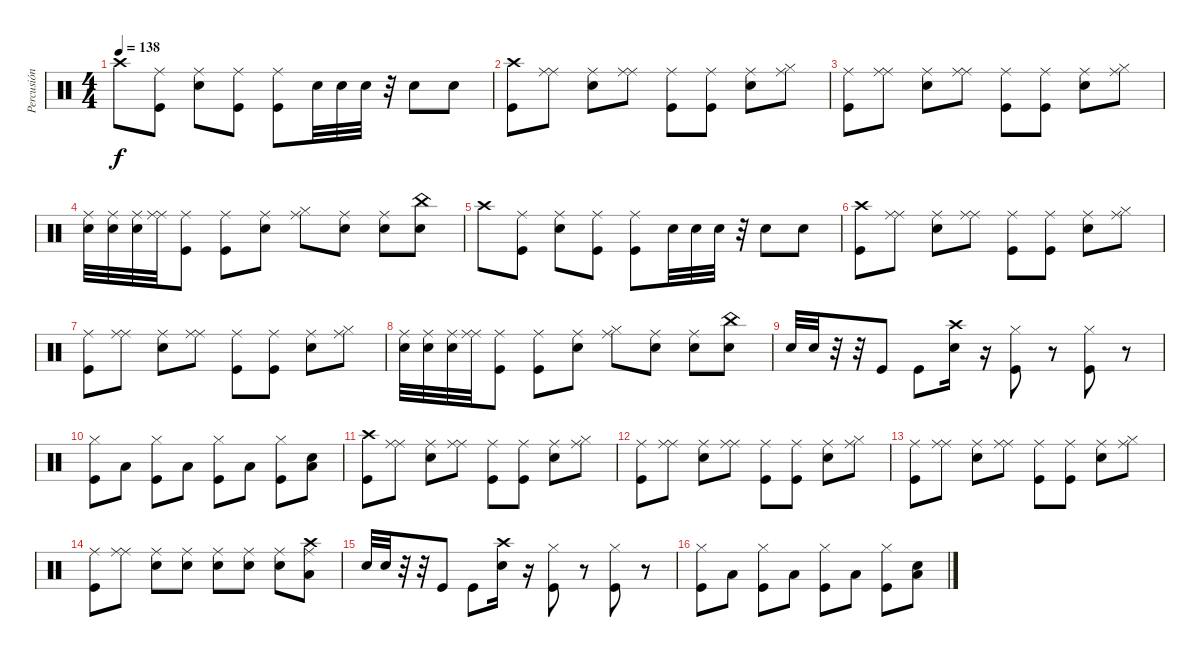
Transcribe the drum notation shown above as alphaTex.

\track ("Percusión" "Percusión") {instrument percussion}
\staff {score}
\articulation defaults
\ts (4 4)
\tempo 138
\clef neutral
\ks c "Crash high (hit)".8{dy f}
("Kick (hit)" "Ride (middle)").8 ("Snare (hit) 2" "Ride (middle)").8 ("Kick (hit)" "Ride (middle)").8 ("Kick (hit)" "Ride (middle)").8 "Snare (hit) 2".32 "Snare (hit) 2".32 "Snare (hit) 2".32 r.32 "Snare (hit) 2".8 "Snare (hit) 2".8 |
("Crash high (hit)" "Kick (hit)").8 ("Ride (middle)" "Ride (middle)").8 ("Ride (middle)" "Snare (hit) 2").8 ("Ride (middle)" "Ride (middle)").8 ("Ride (middle)" "Kick (hit)").8 ("Ride (middle)" "Kick (hit)").8 ("Ride (middle)" "Snare (hit) 2").8 ("Ride (middle)" "Hi-Hat (closed)").8 |
("Ride (middle)" "Kick (hit)").8 ("Ride (middle)" "Ride (middle)").8 ("Ride (middle)" "Snare (hit) 2").8 ("Ride (middle)" "Ride (middle)").8 ("Ride (middle)" "Kick (hit)").8 ("Ride (middle)" "Kick (hit)").8 ("Ride (middle)" "Snare (hit) 2").8 ("Ride (middle)" "Hi-Hat (closed)").8 |
("Ride (middle)" "Snare (hit) 2").32 ("Ride (middle)" "Snare (hit) 2").32 ("Ride (middle)" "Snare (hit) 2").32 ("Ride (middle)" "Ride (middle)").32 ("Ride (middle)" "Kick (hit)").8 ("Ride (middle)" "Kick (hit)").8 ("Ride (middle)" "Snare (hit) 2").8 ("Ride (middle)" "Hi-Hat (closed)").8 ("Ride (middle)" "Snare (hit) 2").8 ("Ride (middle)" "Snare (hit) 2").8 ("China (hit)" "Snare (hit) 2").8 |
"Crash high (hit)".8 ("Kick (hit)" "Ride (middle)").8 ("Snare (hit) 2" "Ride (middle)").8 ("Kick (hit)" "Ride (middle)").8 ("Kick (hit)" "Ride (middle)").8 "Snare (hit) 2".32 "Snare (hit) 2".32 "Snare (hit) 2".32 r.32 "Snare (hit) 2".8 "Snare (hit) 2".8 |
("Crash high (hit)" "Kick (hit)").8 ("Ride (middle)" "Ride (middle)").8 ("Ride (middle)" "Snare (hit) 2").8 ("Ride (middle)" "Ride (middle)").8 ("Ride (middle)" "Kick (hit)").8 ("Ride (middle)" "Kick (hit)").8 ("Ride (middle)" "Snare (hit) 2").8 ("Ride (middle)" "Hi-Hat (closed)").8 |
("Ride (middle)" "Kick (hit)").8 ("Ride (middle)" "Ride (middle)").8 ("Ride (middle)" "Snare (hit) 2").8 ("Ride (middle)" "Ride (middle)").8 ("Ride (middle)" "Kick (hit)").8 ("Ride (middle)" "Kick (hit)").8 ("Ride (middle)" "Snare (hit) 2").8 ("Ride (middle)" "Hi-Hat (closed)").8 |
("Ride (middle)" "Snare (hit) 2").32 ("Ride (middle)" "Snare (hit) 2").32 ("Ride (middle)" "Snare (hit) 2").32 ("Ride (middle)" "Ride (middle)").32 ("Ride (middle)" "Kick (hit)").8 ("Ride (middle)" "Kick (hit)").8 ("Ride (middle)" "Snare (hit) 2").8 ("Ride (middle)" "Hi-Hat (closed)").8 ("Ride (middle)" "Snare (hit) 2").8 ("Ride (middle)" "Snare (hit) 2").8 ("China (hit)" "Snare (hit) 2").8 |
"Snare (hit) 2".32 "Snare (hit) 2".32 r.32 r.32 "Kick (hit)".8 "Kick (hit)".8 ("Crash high (hit)" "Snare (hit) 2").16 r.16 ("Hi-Hat (closed)" "Kick (hit)").8 r.8 ("Hi-Hat (closed)" "Kick (hit)").8 r.8 |
("Hi-Hat (closed)" "Kick (hit)").8 "Low Tom (hit)".8 ("Hi-Hat (closed)" "Kick (hit)").8 "Low Floor Tom (hit)".8 ("Hi-Hat (closed)" "Kick (hit)").8 "Low Floor Tom (hit)".8 ("Hi-Hat (closed)" "Kick (hit)").8 ("Low Floor Tom (hit)" "Snare (hit) 2").8 |
("Crash high (hit)" "Kick (hit)").8 ("Ride (middle)" "Ride (middle)").8 ("Ride (middle)" "Snare (hit) 2").8 ("Ride (middle)" "Ride (middle)").8 ("Ride (middle)" "Kick (hit)").8 ("Ride (middle)" "Kick (hit)").8 ("Ride (middle)" "Snare (hit) 2").8 ("Ride (middle)" "Hi-Hat (closed)").8 |
("Ride (middle)" "Kick (hit)").8 ("Ride (middle)" "Ride (middle)").8 ("Ride (middle)" "Snare (hit) 2").8 ("Ride (middle)" "Ride (middle)").8 ("Ride (middle)" "Kick (hit)").8 ("Ride (middle)" "Kick (hit)").8 ("Ride (middle)" "Snare (hit) 2").8 ("Ride (middle)" "Hi-Hat (closed)").8 |
("Ride (middle)" "Kick (hit)").8 ("Ride (middle)" "Ride (middle)").8 ("Ride (middle)" "Snare (hit) 2").8 ("Ride (middle)" "Ride (middle)").8 ("Ride (middle)" "Kick (hit)").8 ("Ride (middle)" "Kick (hit)").8 ("Ride (middle)" "Snare (hit) 2").8 ("Ride (middle)" "Hi-Hat (closed)").8 |
("Ride (middle)" "Kick (hit)").8 ("Ride (middle)" "Ride (middle)").8 ("Ride (middle)" "Snare (hit) 2").8 ("Ride (middle)" "Snare (hit) 2").8 ("Ride (middle)" "Snare (hit) 2").8 ("Ride (middle)" "Snare (hit) 2").8 ("Ride (middle)" "Snare (hit) 2").8 ("Ride (middle)" "Low Tom (hit)" "Crash high (hit)").8 |
"Snare (hit) 2".32 "Snare (hit) 2".32 r.32 r.32 "Kick (hit)".8 "Kick (hit)".8 ("Crash high (hit)" "Snare (hit) 2").16 r.16 ("Hi-Hat (closed)" "Kick (hit)").8 r.8 ("Hi-Hat (closed)" "Kick (hit)").8 r.8 |
("Hi-Hat (closed)" "Kick (hit)").8 "Low Tom (hit)".8 ("Hi-Hat (closed)" "Kick (hit)").8 "Low Floor Tom (hit)".8 ("Hi-Hat (closed)" "Kick (hit)").8 "Low Floor Tom (hit)".8 ("Hi-Hat (closed)" "Kick (hit)").8 ("Low Floor Tom (hit)" "Snare (hit) 2").8
